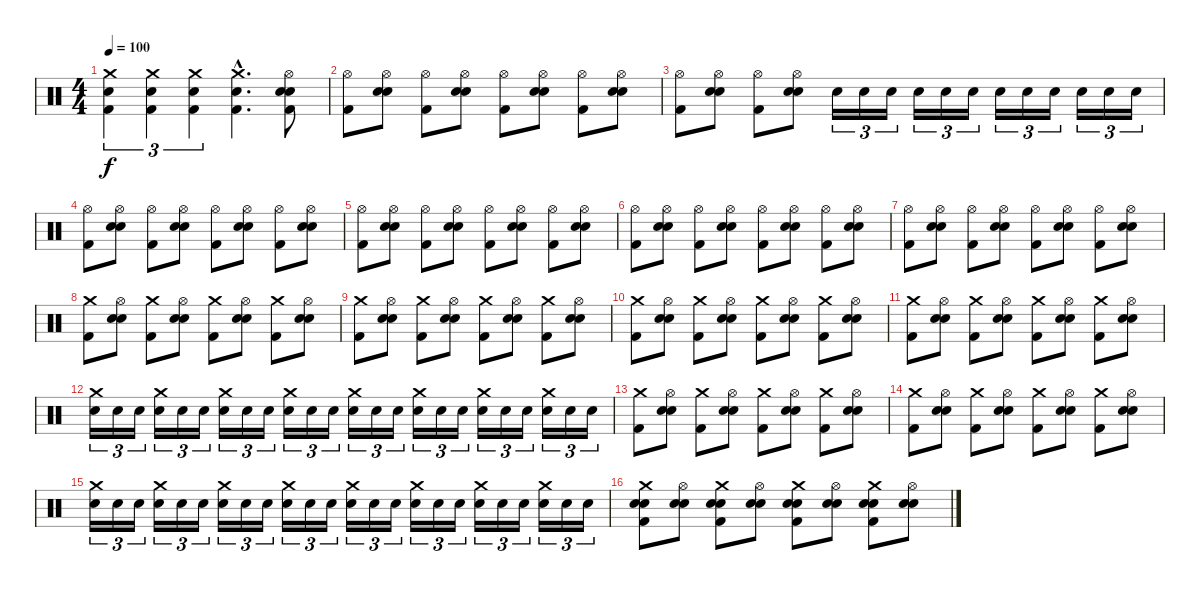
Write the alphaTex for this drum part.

\track "" {instrument percussion}
\staff {score}
\articulation defaults
\ts (4 4)
\tempo 100
\clef neutral
\ks c
("Crash medium (hit)" "Electric Snare (hit)" "Kick (hit) 2").4{tu (3 2) dy f} ("Crash medium (hit)" "Electric Snare (hit)" "Kick (hit) 2").4{tu (3 2)} ("Crash medium (hit)" "Electric Snare (hit)" "Kick (hit) 2").4{tu (3 2)} ("Crash medium (hit)"{hac} "Electric Snare (hit)"{hac} "Kick (hit) 2"{hac}).4{d} ("Hi-Hat (open)" "Snare (hit) 2" "Electric Snare (hit)" "Kick (hit) 2").8 |
("Hi-Hat (open)" "Kick (hit) 2").8 ("Hi-Hat (open)" "Snare (hit) 2" "Electric Snare (hit)").8 ("Hi-Hat (open)" "Kick (hit) 2").8 ("Hi-Hat (open)" "Snare (hit) 2" "Electric Snare (hit)").8 ("Hi-Hat (open)" "Kick (hit) 2").8 ("Hi-Hat (open)" "Snare (hit) 2" "Electric Snare (hit)").8 ("Hi-Hat (open)" "Kick (hit) 2").8 ("Hi-Hat (open)" "Snare (hit) 2" "Electric Snare (hit)").8 |
("Hi-Hat (open)" "Kick (hit) 2").8 ("Hi-Hat (open)" "Snare (hit) 2" "Electric Snare (hit)").8 ("Hi-Hat (open)" "Kick (hit) 2").8 ("Hi-Hat (open)" "Snare (hit) 2" "Electric Snare (hit)").8 "Electric Snare (hit)".16{tu (3 2)} "Electric Snare (hit)".16{tu (3 2)} "Electric Snare (hit)".16{tu (3 2)} "Electric Snare (hit)".16{tu (3 2)} "Electric Snare (hit)".16{tu (3 2)} "Electric Snare (hit)".16{tu (3 2)} "Electric Snare (hit)".16{tu (3 2)} "Electric Snare (hit)".16{tu (3 2)} "Electric Snare (hit)".16{tu (3 2)} "Electric Snare (hit)".16{tu (3 2)} "Electric Snare (hit)".16{tu (3 2)} "Electric Snare (hit)".16{tu (3 2)} |
("Hi-Hat (open)" "Kick (hit) 2").8 ("Hi-Hat (open)" "Snare (hit) 2" "Electric Snare (hit)").8 ("Hi-Hat (open)" "Kick (hit) 2").8 ("Hi-Hat (open)" "Snare (hit) 2" "Electric Snare (hit)").8 ("Hi-Hat (open)" "Kick (hit) 2").8 ("Hi-Hat (open)" "Snare (hit) 2" "Electric Snare (hit)").8 ("Hi-Hat (open)" "Kick (hit) 2").8 ("Hi-Hat (open)" "Snare (hit) 2" "Electric Snare (hit)").8 |
("Hi-Hat (open)" "Kick (hit) 2").8 ("Hi-Hat (open)" "Snare (hit) 2" "Electric Snare (hit)").8 ("Hi-Hat (open)" "Kick (hit) 2").8 ("Hi-Hat (open)" "Snare (hit) 2" "Electric Snare (hit)").8 ("Hi-Hat (open)" "Kick (hit) 2").8 ("Hi-Hat (open)" "Snare (hit) 2" "Electric Snare (hit)").8 ("Hi-Hat (open)" "Kick (hit) 2").8 ("Hi-Hat (open)" "Snare (hit) 2" "Electric Snare (hit)").8 |
("Hi-Hat (open)" "Kick (hit) 2").8 ("Hi-Hat (open)" "Snare (hit) 2" "Electric Snare (hit)").8 ("Hi-Hat (open)" "Kick (hit) 2").8 ("Hi-Hat (open)" "Snare (hit) 2" "Electric Snare (hit)").8 ("Hi-Hat (open)" "Kick (hit) 2").8 ("Hi-Hat (open)" "Snare (hit) 2" "Electric Snare (hit)").8 ("Hi-Hat (open)" "Kick (hit) 2").8 ("Hi-Hat (open)" "Snare (hit) 2" "Electric Snare (hit)").8 |
("Hi-Hat (open)" "Kick (hit) 2").8 ("Hi-Hat (open)" "Snare (hit) 2" "Electric Snare (hit)").8 ("Hi-Hat (open)" "Kick (hit) 2").8 ("Hi-Hat (open)" "Snare (hit) 2" "Electric Snare (hit)").8 ("Hi-Hat (open)" "Kick (hit) 2").8 ("Hi-Hat (open)" "Snare (hit) 2" "Electric Snare (hit)").8 ("Hi-Hat (open)" "Kick (hit) 2").8 ("Hi-Hat (open)" "Snare (hit) 2" "Electric Snare (hit)").8 |
("Crash medium (hit)" "Kick (hit) 2").8 ("Hi-Hat (open)" "Snare (hit) 2" "Electric Snare (hit)").8 ("Crash medium (hit)" "Kick (hit) 2").8 ("Hi-Hat (open)" "Snare (hit) 2" "Electric Snare (hit)").8 ("Crash medium (hit)" "Kick (hit) 2").8 ("Hi-Hat (open)" "Snare (hit) 2" "Electric Snare (hit)").8 ("Crash medium (hit)" "Kick (hit) 2").8 ("Hi-Hat (open)" "Snare (hit) 2" "Electric Snare (hit)").8 |
("Crash medium (hit)" "Kick (hit) 2").8 ("Hi-Hat (open)" "Snare (hit) 2" "Electric Snare (hit)").8 ("Crash medium (hit)" "Kick (hit) 2").8 ("Hi-Hat (open)" "Snare (hit) 2" "Electric Snare (hit)").8 ("Crash medium (hit)" "Kick (hit) 2").8 ("Hi-Hat (open)" "Snare (hit) 2" "Electric Snare (hit)").8 ("Crash medium (hit)" "Kick (hit) 2").8 ("Hi-Hat (open)" "Snare (hit) 2" "Electric Snare (hit)").8 |
("Crash medium (hit)" "Kick (hit) 2").8 ("Hi-Hat (open)" "Snare (hit) 2" "Electric Snare (hit)").8 ("Crash medium (hit)" "Kick (hit) 2").8 ("Hi-Hat (open)" "Snare (hit) 2" "Electric Snare (hit)").8 ("Crash medium (hit)" "Kick (hit) 2").8 ("Hi-Hat (open)" "Snare (hit) 2" "Electric Snare (hit)").8 ("Crash medium (hit)" "Kick (hit) 2").8 ("Hi-Hat (open)" "Snare (hit) 2" "Electric Snare (hit)").8 |
("Crash medium (hit)" "Kick (hit) 2").8 ("Hi-Hat (open)" "Snare (hit) 2" "Electric Snare (hit)").8 ("Crash medium (hit)" "Kick (hit) 2").8 ("Hi-Hat (open)" "Snare (hit) 2" "Electric Snare (hit)").8 ("Crash medium (hit)" "Kick (hit) 2").8 ("Hi-Hat (open)" "Snare (hit) 2" "Electric Snare (hit)").8 ("Crash medium (hit)" "Kick (hit) 2").8 ("Hi-Hat (open)" "Snare (hit) 2" "Electric Snare (hit)").8 |
("Crash medium (hit)" "Electric Snare (hit)").16{tu (3 2)} "Electric Snare (hit)".16{tu (3 2)} "Electric Snare (hit)".16{tu (3 2)} ("Crash medium (hit)" "Electric Snare (hit)").16{tu (3 2)} "Electric Snare (hit)".16{tu (3 2)} "Electric Snare (hit)".16{tu (3 2)} ("Crash medium (hit)" "Electric Snare (hit)").16{tu (3 2)} "Electric Snare (hit)".16{tu (3 2)} "Electric Snare (hit)".16{tu (3 2)} ("Crash medium (hit)" "Electric Snare (hit)").16{tu (3 2)} "Electric Snare (hit)".16{tu (3 2)} "Electric Snare (hit)".16{tu (3 2)} ("Crash medium (hit)" "Electric Snare (hit)").16{tu (3 2)} "Electric Snare (hit)".16{tu (3 2)} "Electric Snare (hit)".16{tu (3 2)} ("Crash medium (hit)" "Electric Snare (hit)").16{tu (3 2)} "Electric Snare (hit)".16{tu (3 2)} "Electric Snare (hit)".16{tu (3 2)} ("Crash medium (hit)" "Electric Snare (hit)").16{tu (3 2)} "Electric Snare (hit)".16{tu (3 2)} "Electric Snare (hit)".16{tu (3 2)} ("Crash medium (hit)" "Electric Snare (hit)").16{tu (3 2)} "Electric Snare (hit)".16{tu (3 2)} "Electric Snare (hit)".16{tu (3 2)} |
("Crash medium (hit)" "Kick (hit) 2").8 ("Hi-Hat (open)" "Snare (hit) 2" "Electric Snare (hit)").8 ("Crash medium (hit)" "Kick (hit) 2").8 ("Hi-Hat (open)" "Snare (hit) 2" "Electric Snare (hit)").8 ("Crash medium (hit)" "Kick (hit) 2").8 ("Hi-Hat (open)" "Snare (hit) 2" "Electric Snare (hit)").8 ("Crash medium (hit)" "Kick (hit) 2").8 ("Hi-Hat (open)" "Snare (hit) 2" "Electric Snare (hit)").8 |
("Crash medium (hit)" "Kick (hit) 2").8 ("Hi-Hat (open)" "Snare (hit) 2" "Electric Snare (hit)").8 ("Crash medium (hit)" "Kick (hit) 2").8 ("Hi-Hat (open)" "Snare (hit) 2" "Electric Snare (hit)").8 ("Crash medium (hit)" "Kick (hit) 2").8 ("Hi-Hat (open)" "Snare (hit) 2" "Electric Snare (hit)").8 ("Crash medium (hit)" "Kick (hit) 2").8 ("Hi-Hat (open)" "Snare (hit) 2" "Electric Snare (hit)").8 |
("Crash medium (hit)" "Electric Snare (hit)").16{tu (3 2)} "Electric Snare (hit)".16{tu (3 2)} "Electric Snare (hit)".16{tu (3 2)} ("Crash medium (hit)" "Electric Snare (hit)").16{tu (3 2)} "Electric Snare (hit)".16{tu (3 2)} "Electric Snare (hit)".16{tu (3 2)} ("Crash medium (hit)" "Electric Snare (hit)").16{tu (3 2)} "Electric Snare (hit)".16{tu (3 2)} "Electric Snare (hit)".16{tu (3 2)} ("Crash medium (hit)" "Electric Snare (hit)").16{tu (3 2)} "Electric Snare (hit)".16{tu (3 2)} "Electric Snare (hit)".16{tu (3 2)} ("Crash medium (hit)" "Electric Snare (hit)").16{tu (3 2)} "Electric Snare (hit)".16{tu (3 2)} "Electric Snare (hit)".16{tu (3 2)} ("Crash medium (hit)" "Electric Snare (hit)").16{tu (3 2)} "Electric Snare (hit)".16{tu (3 2)} "Electric Snare (hit)".16{tu (3 2)} ("Crash medium (hit)" "Electric Snare (hit)").16{tu (3 2)} "Electric Snare (hit)".16{tu (3 2)} "Electric Snare (hit)".16{tu (3 2)} ("Crash medium (hit)" "Electric Snare (hit)").16{tu (3 2)} "Electric Snare (hit)".16{tu (3 2)} "Electric Snare (hit)".16{tu (3 2)} |
("Crash medium (hit)" "Snare (hit) 2" "Electric Snare (hit)" "Kick (hit) 2").8 ("Hi-Hat (open)" "Snare (hit) 2" "Electric Snare (hit)").8 ("Crash medium (hit)" "Snare (hit) 2" "Electric Snare (hit)" "Kick (hit) 2").8 ("Hi-Hat (open)" "Snare (hit) 2" "Electric Snare (hit)").8 ("Crash medium (hit)" "Snare (hit) 2" "Electric Snare (hit)" "Kick (hit) 2").8 ("Hi-Hat (open)" "Snare (hit) 2" "Electric Snare (hit)").8 ("Crash medium (hit)" "Snare (hit) 2" "Electric Snare (hit)" "Kick (hit) 2").8 ("Hi-Hat (open)" "Snare (hit) 2" "Electric Snare (hit)").8
